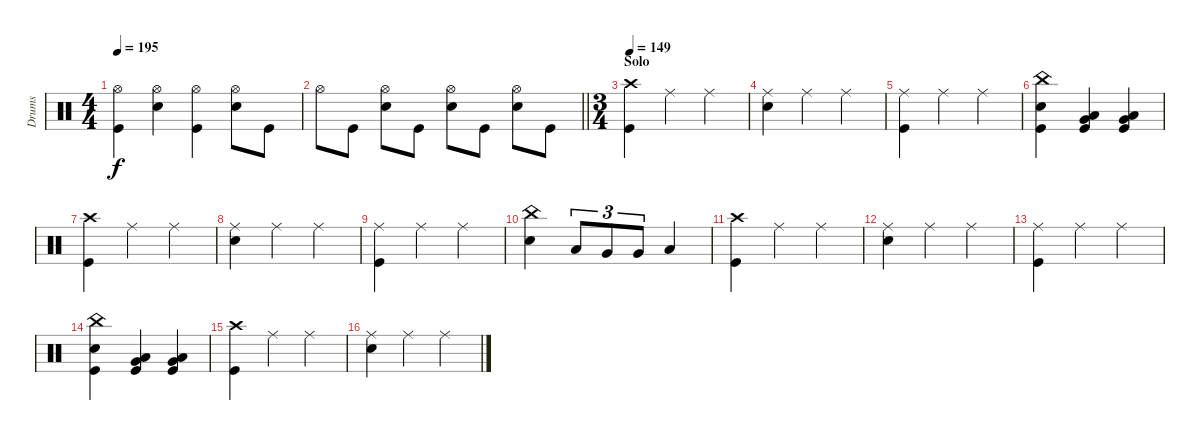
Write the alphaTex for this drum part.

\track ("Drums" "Drums") {instrument percussion}
\staff {score}
\articulation defaults
\ts (4 4)
\tempo 195
\clef neutral
\ks c
("Kick (hit)" "Hi-Hat (open)").4{dy f} ("Snare (hit) 2" "Hi-Hat (open)").4 ("Kick (hit)" "Hi-Hat (open)").4 ("Snare (hit) 2" "Hi-Hat (open)").8 "Kick (hit)".8 |
\barLineRight lightlight "Hi-Hat (open)".8 "Kick (hit)".8
("Snare (hit) 2" "Hi-Hat (open)").8 "Kick (hit)".8 ("Snare (hit) 2" "Hi-Hat (open)").8 "Kick (hit)".8 ("Snare (hit) 2" "Hi-Hat (open)").8 "Kick (hit)".8 |
\ts (3 4)
\section ("" "Solo")
\tempo 149
("Kick (hit)" "Crash high (hit)").4 "Ride (middle)".4 "Ride (middle)".4 |
("Snare (hit) 2" "Ride (middle)").4 "Ride (middle)".4 "Ride (middle)".4 |
("Kick (hit)" "Ride (middle)").4 "Ride (middle)".4 "Ride (middle)".4 |
("Snare (hit) 2" "China (hit)" "Kick (hit)").4 ("Kick (hit)" "Very Low Tom (hit)" "Low Tom (hit)").4 ("Very Low Tom (hit)" "Low Floor Tom (hit)" "Kick (hit)").4 |
("Kick (hit)" "Crash high (hit)").4 "Ride (middle)".4 "Ride (middle)".4 |
("Snare (hit) 2" "Ride (middle)").4 "Ride (middle)".4 "Ride (middle)".4 |
("Kick (hit)" "Ride (middle)").4 "Ride (middle)".4 "Ride (middle)".4 |
("Snare (hit) 2" "China (hit)").4 "Low Tom (hit)".8{tu (3 2)} "Very Low Tom (hit)".8{tu (3 2)} "Very Low Tom (hit)".8{tu (3 2)} "Low Floor Tom (hit)".4 |
("Kick (hit)" "Crash high (hit)").4 "Ride (middle)".4 "Ride (middle)".4 |
("Snare (hit) 2" "Ride (middle)").4 "Ride (middle)".4 "Ride (middle)".4 |
("Kick (hit)" "Ride (middle)").4 "Ride (middle)".4 "Ride (middle)".4 |
("Snare (hit) 2" "China (hit)" "Kick (hit)").4 ("Kick (hit)" "Very Low Tom (hit)" "Low Tom (hit)").4 ("Very Low Tom (hit)" "Low Floor Tom (hit)" "Kick (hit)").4 |
("Kick (hit)" "Crash high (hit)").4 "Ride (middle)".4 "Ride (middle)".4 |
("Snare (hit) 2" "Ride (middle)").4 "Ride (middle)".4 "Ride (middle)".4
